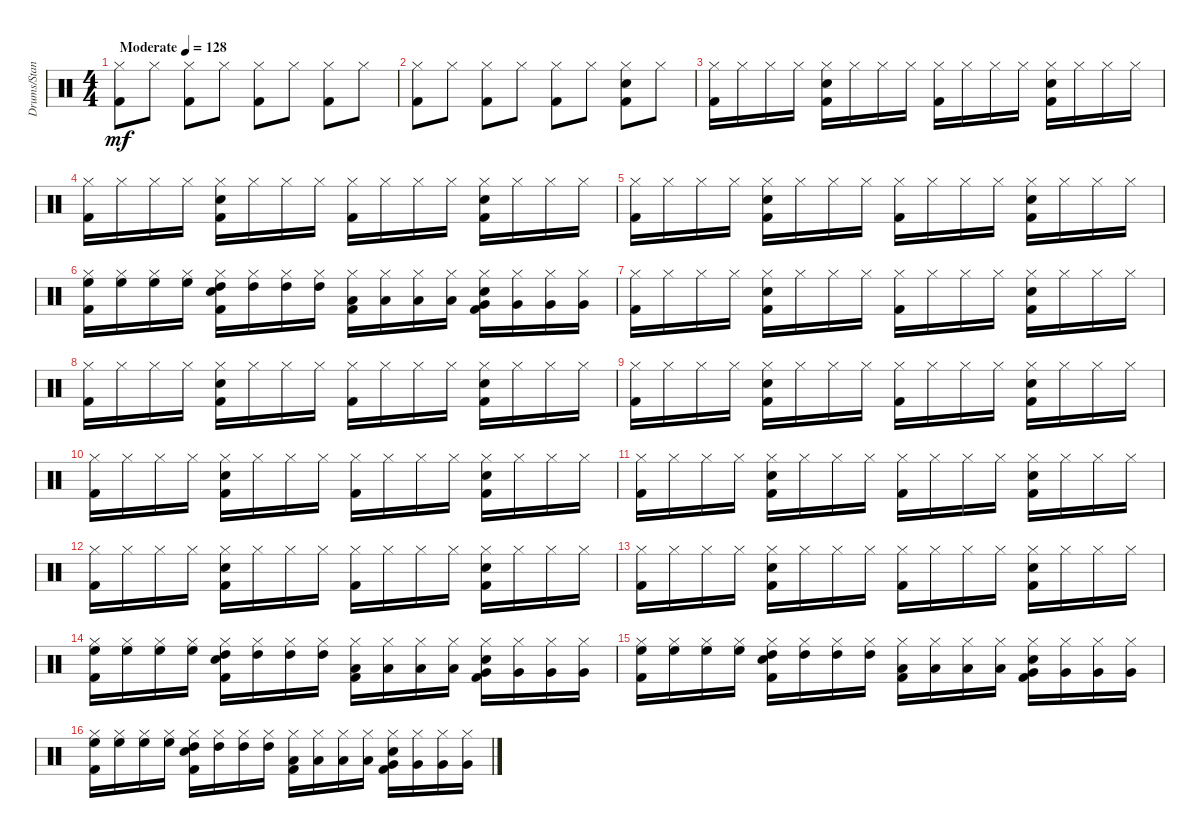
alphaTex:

\track ("Drums/Standard" "Drums/Stan") {instrument percussion}
\staff {score}
\articulation defaults
\ts (4 4)
\tempo (128 "Moderate")
\clef neutral
\ks c
("Hi-Hat (closed)" "Kick (hit) 2").8{dy mf} "Hi-Hat (closed)".8 ("Hi-Hat (closed)" "Kick (hit) 2").8 "Hi-Hat (closed)".8 ("Hi-Hat (closed)" "Kick (hit) 2").8 "Hi-Hat (closed)".8 ("Hi-Hat (closed)" "Kick (hit) 2").8 "Hi-Hat (closed)".8 |
("Hi-Hat (closed)" "Kick (hit) 2").8 "Hi-Hat (closed)".8 ("Hi-Hat (closed)" "Kick (hit) 2").8 "Hi-Hat (closed)".8 ("Hi-Hat (closed)" "Kick (hit) 2").8 "Hi-Hat (closed)".8 ("Hi-Hat (closed)" "Snare (hit) 2" "Kick (hit) 2").8 "Hi-Hat (closed)".8 |
("Kick (hit) 2" "Hi-Hat (closed)").16 "Hi-Hat (closed)".16 "Hi-Hat (closed)".16 "Hi-Hat (closed)".16 ("Snare (hit) 2" "Kick (hit) 2" "Hi-Hat (closed)").16 "Hi-Hat (closed)".16 "Hi-Hat (closed)".16 "Hi-Hat (closed)".16 ("Kick (hit) 2" "Hi-Hat (closed)").16 "Hi-Hat (closed)".16 "Hi-Hat (closed)".16 "Hi-Hat (closed)".16 ("Kick (hit) 2" "Hi-Hat (closed)" "Snare (hit) 2").16 "Hi-Hat (closed)".16 "Hi-Hat (closed)".16 "Hi-Hat (closed)".16 |
("Hi-Hat (closed)" "Kick (hit) 2").16 "Hi-Hat (closed)".16 "Hi-Hat (closed)".16 "Hi-Hat (closed)".16 ("Hi-Hat (closed)" "Kick (hit) 2" "Snare (hit) 2").16 "Hi-Hat (closed)".16 "Hi-Hat (closed)".16 "Hi-Hat (closed)".16 ("Kick (hit) 2" "Hi-Hat (closed)").16 "Hi-Hat (closed)".16 "Hi-Hat (closed)".16 "Hi-Hat (closed)".16 ("Hi-Hat (closed)" "Kick (hit) 2" "Snare (hit) 2").16 "Hi-Hat (closed)".16 "Hi-Hat (closed)".16 "Hi-Hat (closed)".16 |
("Hi-Hat (closed)" "Kick (hit) 2").16 "Hi-Hat (closed)".16 "Hi-Hat (closed)".16 "Hi-Hat (closed)".16 ("Hi-Hat (closed)" "Kick (hit) 2" "Snare (hit) 2").16 "Hi-Hat (closed)".16 "Hi-Hat (closed)".16 "Hi-Hat (closed)".16 ("Hi-Hat (closed)" "Kick (hit) 2").16 "Hi-Hat (closed)".16 "Hi-Hat (closed)".16 "Hi-Hat (closed)".16 ("Snare (hit) 2" "Hi-Hat (closed)" "Kick (hit) 2").16 "Hi-Hat (closed)".16 "Hi-Hat (closed)".16 "Hi-Hat (closed)".16 |
("Kick (hit) 2" "Hi-Hat (closed)" "High Floor Tom (hit)").16 ("Hi-Hat (closed)" "High Floor Tom (hit)").16 ("Hi-Hat (closed)" "High Floor Tom (hit)").16 ("Hi-Hat (closed)" "High Floor Tom (hit)").16 ("Snare (hit) 2" "Kick (hit) 2" "Hi-Hat (closed)" "High Tom (hit)").16 ("Hi-Hat (closed)" "High Tom (hit)").16 ("Hi-Hat (closed)" "High Tom (hit)").16 ("Hi-Hat (closed)" "High Tom (hit)").16 ("Hi-Hat (closed)" "Kick (hit) 2" "Low Tom (hit)").16 ("Hi-Hat (closed)" "Low Tom (hit)").16 ("Hi-Hat (closed)" "Low Tom (hit)").16 ("Hi-Hat (closed)" "Low Tom (hit)").16 ("Hi-Hat (closed)" "Snare (hit) 2" "Kick (hit) 2" "Very Low Tom (hit)").16 ("Hi-Hat (closed)" "Very Low Tom (hit)").16 ("Hi-Hat (closed)" "Very Low Tom (hit)").16 ("Hi-Hat (closed)" "Very Low Tom (hit)").16 |
("Hi-Hat (closed)" "Kick (hit) 2").16 "Hi-Hat (closed)".16 "Hi-Hat (closed)".16 "Hi-Hat (closed)".16 ("Hi-Hat (closed)" "Kick (hit) 2" "Snare (hit) 2").16 "Hi-Hat (closed)".16 "Hi-Hat (closed)".16 "Hi-Hat (closed)".16 ("Hi-Hat (closed)" "Kick (hit) 2").16 "Hi-Hat (closed)".16 "Hi-Hat (closed)".16 "Hi-Hat (closed)".16 ("Snare (hit) 2" "Hi-Hat (closed)" "Kick (hit) 2").16 "Hi-Hat (closed)".16 "Hi-Hat (closed)".16 "Hi-Hat (closed)".16 |
("Kick (hit) 2" "Hi-Hat (closed)").16 "Hi-Hat (closed)".16 "Hi-Hat (closed)".16 "Hi-Hat (closed)".16 ("Snare (hit) 2" "Kick (hit) 2" "Hi-Hat (closed)").16 "Hi-Hat (closed)".16 "Hi-Hat (closed)".16 "Hi-Hat (closed)".16 ("Hi-Hat (closed)" "Kick (hit) 2").16 "Hi-Hat (closed)".16 "Hi-Hat (closed)".16 "Hi-Hat (closed)".16 ("Hi-Hat (closed)" "Snare (hit) 2" "Kick (hit) 2").16 "Hi-Hat (closed)".16 "Hi-Hat (closed)".16 "Hi-Hat (closed)".16 |
("Kick (hit) 2" "Hi-Hat (closed)").16 "Hi-Hat (closed)".16 "Hi-Hat (closed)".16 "Hi-Hat (closed)".16 ("Snare (hit) 2" "Kick (hit) 2" "Hi-Hat (closed)").16 "Hi-Hat (closed)".16 "Hi-Hat (closed)".16 "Hi-Hat (closed)".16 ("Kick (hit) 2" "Hi-Hat (closed)").16 "Hi-Hat (closed)".16 "Hi-Hat (closed)".16 "Hi-Hat (closed)".16 ("Kick (hit) 2" "Hi-Hat (closed)" "Snare (hit) 2").16 "Hi-Hat (closed)".16 "Hi-Hat (closed)".16 "Hi-Hat (closed)".16 |
("Hi-Hat (closed)" "Kick (hit) 2").16 "Hi-Hat (closed)".16 "Hi-Hat (closed)".16 "Hi-Hat (closed)".16 ("Hi-Hat (closed)" "Kick (hit) 2" "Snare (hit) 2").16 "Hi-Hat (closed)".16 "Hi-Hat (closed)".16 "Hi-Hat (closed)".16 ("Hi-Hat (closed)" "Kick (hit) 2").16 "Hi-Hat (closed)".16 "Hi-Hat (closed)".16 "Hi-Hat (closed)".16 ("Snare (hit) 2" "Hi-Hat (closed)" "Kick (hit) 2").16 "Hi-Hat (closed)".16 "Hi-Hat (closed)".16 "Hi-Hat (closed)".16 |
("Hi-Hat (closed)" "Kick (hit) 2").16 "Hi-Hat (closed)".16 "Hi-Hat (closed)".16 "Hi-Hat (closed)".16 ("Hi-Hat (closed)" "Kick (hit) 2" "Snare (hit) 2").16 "Hi-Hat (closed)".16 "Hi-Hat (closed)".16 "Hi-Hat (closed)".16 ("Hi-Hat (closed)" "Kick (hit) 2").16 "Hi-Hat (closed)".16 "Hi-Hat (closed)".16 "Hi-Hat (closed)".16 ("Snare (hit) 2" "Hi-Hat (closed)" "Kick (hit) 2").16 "Hi-Hat (closed)".16 "Hi-Hat (closed)".16 "Hi-Hat (closed)".16 |
("Kick (hit) 2" "Hi-Hat (closed)").16 "Hi-Hat (closed)".16 "Hi-Hat (closed)".16 "Hi-Hat (closed)".16 ("Snare (hit) 2" "Kick (hit) 2" "Hi-Hat (closed)").16 "Hi-Hat (closed)".16 "Hi-Hat (closed)".16 "Hi-Hat (closed)".16 ("Hi-Hat (closed)" "Kick (hit) 2").16 "Hi-Hat (closed)".16 "Hi-Hat (closed)".16 "Hi-Hat (closed)".16 ("Hi-Hat (closed)" "Snare (hit) 2" "Kick (hit) 2").16 "Hi-Hat (closed)".16 "Hi-Hat (closed)".16 "Hi-Hat (closed)".16 |
("Kick (hit) 2" "Hi-Hat (closed)").16 "Hi-Hat (closed)".16 "Hi-Hat (closed)".16 "Hi-Hat (closed)".16 ("Snare (hit) 2" "Kick (hit) 2" "Hi-Hat (closed)").16 "Hi-Hat (closed)".16 "Hi-Hat (closed)".16 "Hi-Hat (closed)".16 ("Kick (hit) 2" "Hi-Hat (closed)").16 "Hi-Hat (closed)".16 "Hi-Hat (closed)".16 "Hi-Hat (closed)".16 ("Kick (hit) 2" "Hi-Hat (closed)" "Snare (hit) 2").16 "Hi-Hat (closed)".16 "Hi-Hat (closed)".16 "Hi-Hat (closed)".16 |
("Kick (hit) 2" "Hi-Hat (closed)" "High Floor Tom (hit)").16 ("Hi-Hat (closed)" "High Floor Tom (hit)").16 ("Hi-Hat (closed)" "High Floor Tom (hit)").16 ("Hi-Hat (closed)" "High Floor Tom (hit)").16 ("Snare (hit) 2" "Kick (hit) 2" "Hi-Hat (closed)" "High Tom (hit)").16 ("Hi-Hat (closed)" "High Tom (hit)").16 ("Hi-Hat (closed)" "High Tom (hit)").16 ("Hi-Hat (closed)" "High Tom (hit)").16 ("Hi-Hat (closed)" "Kick (hit) 2" "Low Tom (hit)").16 ("Hi-Hat (closed)" "Low Tom (hit)").16 ("Hi-Hat (closed)" "Low Tom (hit)").16 ("Hi-Hat (closed)" "Low Tom (hit)").16 ("Hi-Hat (closed)" "Snare (hit) 2" "Kick (hit) 2" "Very Low Tom (hit)").16 ("Hi-Hat (closed)" "Very Low Tom (hit)").16 ("Hi-Hat (closed)" "Very Low Tom (hit)").16 ("Hi-Hat (closed)" "Very Low Tom (hit)").16 |
("Kick (hit) 2" "Hi-Hat (closed)" "High Floor Tom (hit)").16 ("Hi-Hat (closed)" "High Floor Tom (hit)").16 ("Hi-Hat (closed)" "High Floor Tom (hit)").16 ("Hi-Hat (closed)" "High Floor Tom (hit)").16 ("Snare (hit) 2" "Kick (hit) 2" "Hi-Hat (closed)" "High Tom (hit)").16 ("Hi-Hat (closed)" "High Tom (hit)").16 ("Hi-Hat (closed)" "High Tom (hit)").16 ("Hi-Hat (closed)" "High Tom (hit)").16 ("Hi-Hat (closed)" "Kick (hit) 2" "Low Tom (hit)").16 ("Hi-Hat (closed)" "Low Tom (hit)").16 ("Hi-Hat (closed)" "Low Tom (hit)").16 ("Hi-Hat (closed)" "Low Tom (hit)").16 ("Hi-Hat (closed)" "Snare (hit) 2" "Kick (hit) 2" "Very Low Tom (hit)").16 ("Hi-Hat (closed)" "Very Low Tom (hit)").16 ("Hi-Hat (closed)" "Very Low Tom (hit)").16 ("Hi-Hat (closed)" "Very Low Tom (hit)").16 |
("Kick (hit) 2" "Hi-Hat (closed)" "High Floor Tom (hit)").16 ("Hi-Hat (closed)" "High Floor Tom (hit)").16 ("Hi-Hat (closed)" "High Floor Tom (hit)").16 ("Hi-Hat (closed)" "High Floor Tom (hit)").16 ("Snare (hit) 2" "Kick (hit) 2" "Hi-Hat (closed)" "High Tom (hit)").16 ("Hi-Hat (closed)" "High Tom (hit)").16 ("Hi-Hat (closed)" "High Tom (hit)").16 ("Hi-Hat (closed)" "High Tom (hit)").16 ("Hi-Hat (closed)" "Kick (hit) 2" "Low Tom (hit)").16 ("Hi-Hat (closed)" "Low Tom (hit)").16 ("Hi-Hat (closed)" "Low Tom (hit)").16 ("Hi-Hat (closed)" "Low Tom (hit)").16 ("Hi-Hat (closed)" "Snare (hit) 2" "Kick (hit) 2" "Very Low Tom (hit)").16 ("Hi-Hat (closed)" "Very Low Tom (hit)").16 ("Hi-Hat (closed)" "Very Low Tom (hit)").16 ("Hi-Hat (closed)" "Very Low Tom (hit)").16
